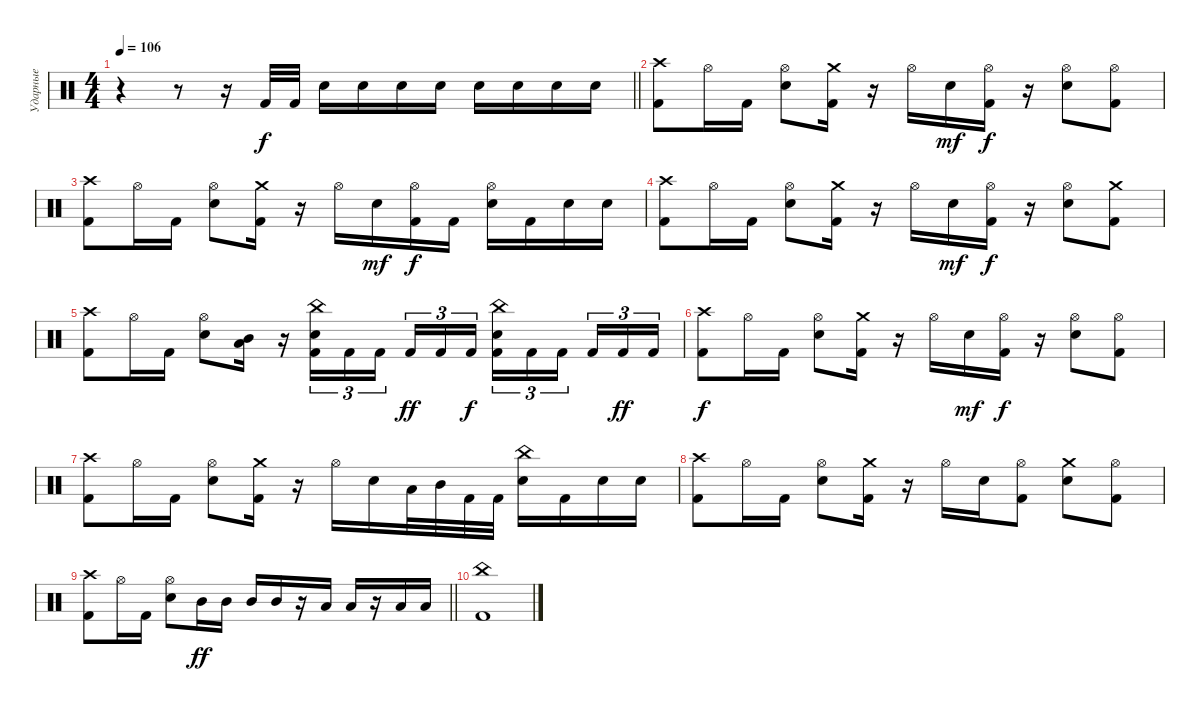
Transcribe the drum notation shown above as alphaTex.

\track ("Ударные" "Ударные") {instrument percussion}
\staff {score}
\articulation defaults
\ts (4 4)
\tempo 106
\clef neutral
\barLineRight lightlight
\ks c
r.4{dy f} r.8 r.16 "Kick (hit) 2".32 "Kick (hit) 2".32 "Electric Snare (hit)".16 "Electric Snare (hit)".16 "Electric Snare (hit)".16 "Electric Snare (hit)".16 "Electric Snare (hit)".16 "Electric Snare (hit)".16 "Electric Snare (hit)".16 "Electric Snare (hit)".16 |
("Crash high (hit)" "Kick (hit) 2").8 "Hi-Hat (open)".16 "Kick (hit) 2".16 ("Hi-Hat (open)" "Electric Snare (hit)").8 ("Crash medium (hit)" "Kick (hit) 2").16 r.16 "Hi-Hat (open)".16 "Electric Snare (hit)".16{dy mf} ("Hi-Hat (open)" "Kick (hit) 2").16{dy f} r.16 ("Hi-Hat (open)" "Electric Snare (hit)").8 ("Hi-Hat (open)" "Kick (hit) 2").8 |
("Crash high (hit)" "Kick (hit) 2").8 "Hi-Hat (open)".16 "Kick (hit) 2".16 ("Hi-Hat (open)" "Electric Snare (hit)").8 ("Crash medium (hit)" "Kick (hit) 2").16 r.16 "Hi-Hat (open)".16 "Electric Snare (hit)".16{dy mf} ("Hi-Hat (open)" "Kick (hit) 2").16{dy f} "Kick (hit) 2".16 ("Hi-Hat (open)" "Electric Snare (hit)").16 "Kick (hit) 2".16 "Electric Snare (hit)".16 "Electric Snare (hit)".16 |
("Crash high (hit)" "Kick (hit) 2").8 "Hi-Hat (open)".16 "Kick (hit) 2".16 ("Hi-Hat (open)" "Electric Snare (hit)").8 ("Crash medium (hit)" "Kick (hit) 2").16 r.16 "Hi-Hat (open)".16 "Electric Snare (hit)".16{dy mf} ("Hi-Hat (open)" "Kick (hit) 2").16{dy f} r.16 ("Hi-Hat (open)" "Electric Snare (hit)").8 ("Crash medium (hit)" "Kick (hit) 2").8 |
("Crash high (hit)" "Kick (hit) 2").8 "Hi-Hat (open)".16 "Kick (hit) 2".16 ("Hi-Hat (open)" "Electric Snare (hit)").8 ("Mid Tom (hit)" "Low Floor Tom (hit)").16 r.16 ("China (hit)" "Electric Snare (hit)" "Kick (hit) 2").16{tu (3 2)} "Kick (hit) 2".16{tu (3 2)} "Kick (hit) 2".16{tu (3 2) beam splitsecondary} "Kick (hit) 2".16{tu (3 2) dy ff} "Kick (hit) 2".16{tu (3 2)} "Kick (hit) 2".16{tu (3 2) dy f} ("China (hit)" "Electric Snare (hit)" "Kick (hit) 2").16{tu (3 2)} "Kick (hit) 2".16{tu (3 2)} "Kick (hit) 2".16{tu (3 2) beam splitsecondary} "Kick (hit) 2".16{tu (3 2)} "Kick (hit) 2".16{tu (3 2) dy ff} "Kick (hit) 2".16{tu (3 2)} |
("Crash high (hit)" "Kick (hit) 2").8{dy f} "Hi-Hat (open)".16 "Kick (hit) 2".16 ("Hi-Hat (open)" "Electric Snare (hit)").8 ("Crash medium (hit)" "Kick (hit) 2").16 r.16 "Hi-Hat (open)".16 "Electric Snare (hit)".16{dy mf} ("Hi-Hat (open)" "Kick (hit) 2").16{dy f} r.16 ("Hi-Hat (open)" "Electric Snare (hit)").8 ("Hi-Hat (open)" "Kick (hit) 2").8 |
("Crash high (hit)" "Kick (hit) 2").8 "Hi-Hat (open)".16 "Kick (hit) 2".16 ("Hi-Hat (open)" "Electric Snare (hit)").8 ("Crash medium (hit)" "Kick (hit) 2").16 r.16 "Hi-Hat (open)".16 "Electric Snare (hit)".16 "Low Floor Tom (hit)".32 "Mid Tom (hit)".32 "Kick (hit) 2".32 "Kick (hit) 2".32 ("China (hit)" "Electric Snare (hit)").16 "Kick (hit) 2".16 "Electric Snare (hit)".16 "Electric Snare (hit)".16 |
("Crash high (hit)" "Kick (hit) 2").8 "Hi-Hat (open)".16 "Kick (hit) 2".16 ("Hi-Hat (open)" "Electric Snare (hit)").8 ("Crash medium (hit)" "Kick (hit) 2").16 r.16 "Hi-Hat (open)".16 "Electric Snare (hit)".16 ("Hi-Hat (open)" "Kick (hit) 2").8 ("Crash medium (hit)" "Electric Snare (hit)").8 ("Hi-Hat (open)" "Kick (hit) 2").8 |
\barLineRight lightlight
("Crash high (hit)" "Kick (hit) 2").8 "Hi-Hat (open)".16 "Kick (hit) 2".16 ("Hi-Hat (open)" "Electric Snare (hit)").8 "Mid Tom (hit)".16{dy ff} "Mid Tom (hit)".16 "Mid Tom (hit)".16 "Mid Tom (hit)".16 r.16 "Low Tom (hit)".16 "Low Tom (hit)".16 r.16 "Low Floor Tom (hit)".16 "Low Floor Tom (hit)".16 |
("China (hit)" "Kick (hit) 2").1
